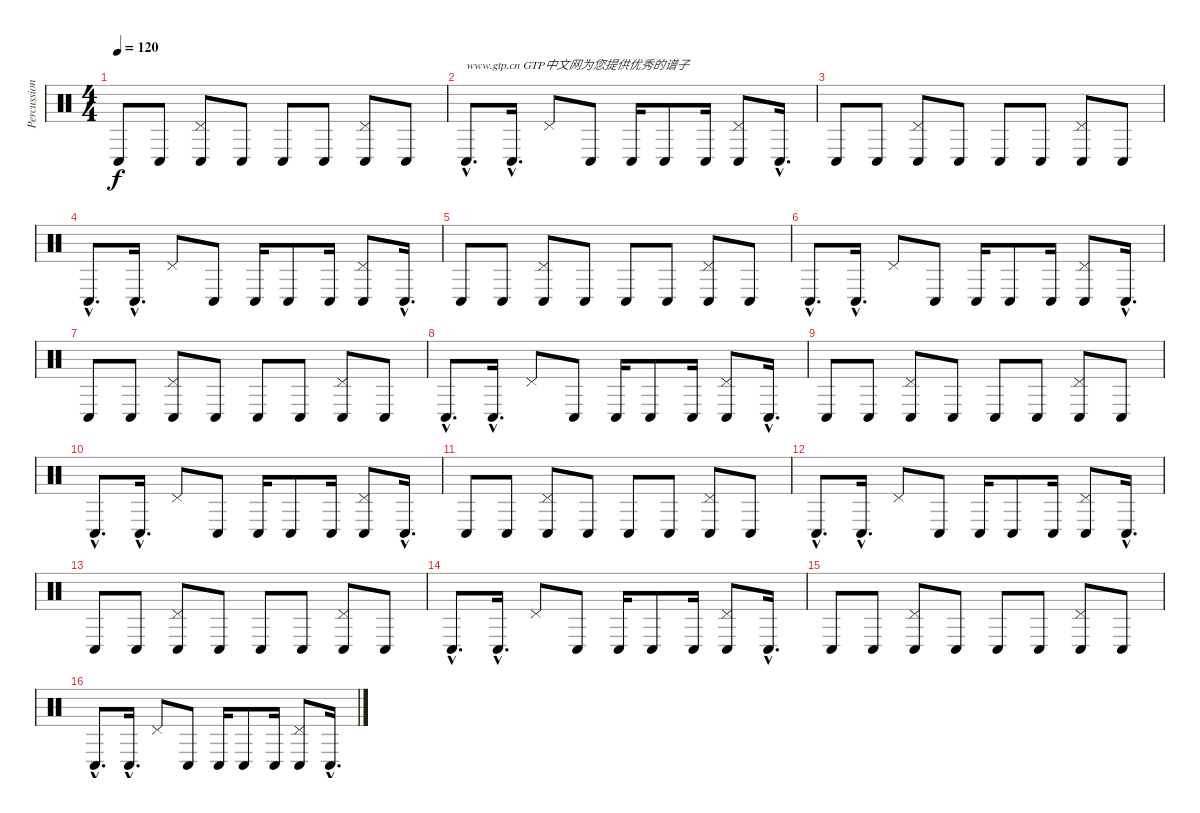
\track ("Percussion" "Percussion") {instrument percussion}
\staff {score}
\articulation defaults
\ts (4 4)
\tempo 120
\clef neutral
\ks c "Conga low (hit)".8{dy f} "Conga low (hit)".8
("Pedal Hi-Hat (hit)" "Conga low (hit)").8 "Conga low (hit)".8 "Conga low (hit)".8 "Conga low (hit)".8 ("Pedal Hi-Hat (hit)" "Conga low (hit)").8 "Conga low (hit)".8 |
"Conga low (hit)"{hac}.8{d txt "www.gtp.cn GTP中文网为您提供优秀的谱子"} "Conga low (hit)"{hac}.16{d} "Pedal Hi-Hat (hit)".8 "Conga low (hit)".8 "Conga low (hit)".16 "Conga low (hit)".8 "Conga low (hit)".16 ("Pedal Hi-Hat (hit)" "Conga low (hit)").8 "Conga low (hit)"{hac}.16{d} |
"Conga low (hit)".8 "Conga low (hit)".8 ("Pedal Hi-Hat (hit)" "Conga low (hit)").8 "Conga low (hit)".8 "Conga low (hit)".8 "Conga low (hit)".8 ("Pedal Hi-Hat (hit)" "Conga low (hit)").8 "Conga low (hit)".8 |
"Conga low (hit)"{hac}.8{d} "Conga low (hit)"{hac}.16{d} "Pedal Hi-Hat (hit)".8 "Conga low (hit)".8 "Conga low (hit)".16 "Conga low (hit)".8 "Conga low (hit)".16 ("Pedal Hi-Hat (hit)" "Conga low (hit)").8 "Conga low (hit)"{hac}.16{d} |
"Conga low (hit)".8 "Conga low (hit)".8 ("Pedal Hi-Hat (hit)" "Conga low (hit)").8 "Conga low (hit)".8 "Conga low (hit)".8 "Conga low (hit)".8 ("Pedal Hi-Hat (hit)" "Conga low (hit)").8 "Conga low (hit)".8 |
"Conga low (hit)"{hac}.8{d} "Conga low (hit)"{hac}.16{d} "Pedal Hi-Hat (hit)".8 "Conga low (hit)".8 "Conga low (hit)".16 "Conga low (hit)".8 "Conga low (hit)".16 ("Pedal Hi-Hat (hit)" "Conga low (hit)").8 "Conga low (hit)"{hac}.16{d} |
"Conga low (hit)".8 "Conga low (hit)".8 ("Pedal Hi-Hat (hit)" "Conga low (hit)").8 "Conga low (hit)".8 "Conga low (hit)".8 "Conga low (hit)".8 ("Pedal Hi-Hat (hit)" "Conga low (hit)").8 "Conga low (hit)".8 |
"Conga low (hit)"{hac}.8{d} "Conga low (hit)"{hac}.16{d} "Pedal Hi-Hat (hit)".8 "Conga low (hit)".8 "Conga low (hit)".16 "Conga low (hit)".8 "Conga low (hit)".16 ("Pedal Hi-Hat (hit)" "Conga low (hit)").8 "Conga low (hit)"{hac}.16{d} |
"Conga low (hit)".8 "Conga low (hit)".8 ("Pedal Hi-Hat (hit)" "Conga low (hit)").8 "Conga low (hit)".8 "Conga low (hit)".8 "Conga low (hit)".8 ("Pedal Hi-Hat (hit)" "Conga low (hit)").8 "Conga low (hit)".8 |
"Conga low (hit)"{hac}.8{d} "Conga low (hit)"{hac}.16{d} "Pedal Hi-Hat (hit)".8 "Conga low (hit)".8 "Conga low (hit)".16 "Conga low (hit)".8 "Conga low (hit)".16 ("Pedal Hi-Hat (hit)" "Conga low (hit)").8 "Conga low (hit)"{hac}.16{d} |
"Conga low (hit)".8 "Conga low (hit)".8 ("Pedal Hi-Hat (hit)" "Conga low (hit)").8 "Conga low (hit)".8 "Conga low (hit)".8 "Conga low (hit)".8 ("Pedal Hi-Hat (hit)" "Conga low (hit)").8 "Conga low (hit)".8 |
"Conga low (hit)"{hac}.8{d} "Conga low (hit)"{hac}.16{d} "Pedal Hi-Hat (hit)".8 "Conga low (hit)".8 "Conga low (hit)".16 "Conga low (hit)".8 "Conga low (hit)".16 ("Pedal Hi-Hat (hit)" "Conga low (hit)").8 "Conga low (hit)"{hac}.16{d} |
"Conga low (hit)".8 "Conga low (hit)".8 ("Pedal Hi-Hat (hit)" "Conga low (hit)").8 "Conga low (hit)".8 "Conga low (hit)".8 "Conga low (hit)".8 ("Pedal Hi-Hat (hit)" "Conga low (hit)").8 "Conga low (hit)".8 |
"Conga low (hit)"{hac}.8{d} "Conga low (hit)"{hac}.16{d} "Pedal Hi-Hat (hit)".8 "Conga low (hit)".8 "Conga low (hit)".16 "Conga low (hit)".8 "Conga low (hit)".16 ("Pedal Hi-Hat (hit)" "Conga low (hit)").8 "Conga low (hit)"{hac}.16{d} |
"Conga low (hit)".8 "Conga low (hit)".8 ("Pedal Hi-Hat (hit)" "Conga low (hit)").8 "Conga low (hit)".8 "Conga low (hit)".8 "Conga low (hit)".8 ("Pedal Hi-Hat (hit)" "Conga low (hit)").8 "Conga low (hit)".8 |
"Conga low (hit)"{hac}.8{d} "Conga low (hit)"{hac}.16{d} "Pedal Hi-Hat (hit)".8 "Conga low (hit)".8 "Conga low (hit)".16 "Conga low (hit)".8 "Conga low (hit)".16 ("Pedal Hi-Hat (hit)" "Conga low (hit)").8 "Conga low (hit)"{hac}.16{d}
